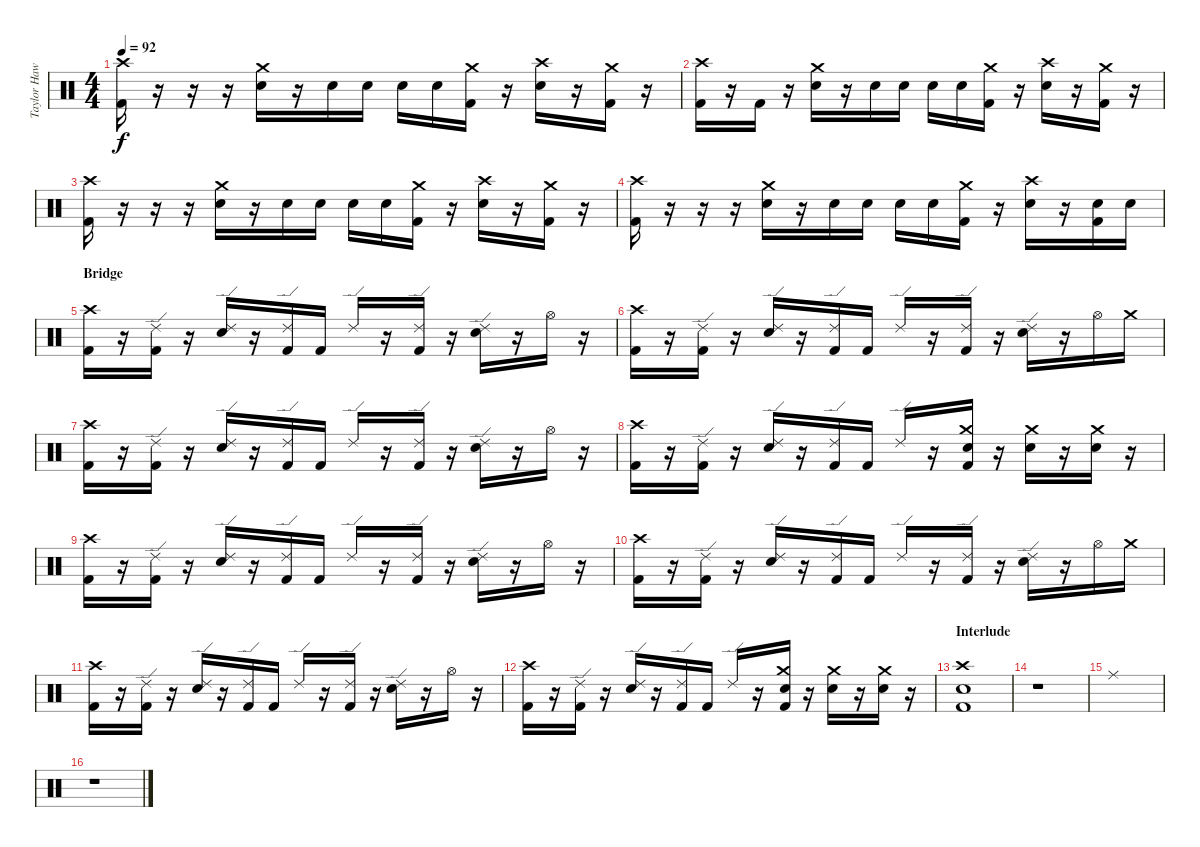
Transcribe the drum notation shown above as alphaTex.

\track ("Taylor Hawkins (Drums)" "Taylor Haw") {instrument percussion}
\staff {score}
\articulation defaults
\ts (4 4)
\tempo 92
\clef neutral
\ks c
("Crash high (hit)" "Kick (hit) 2").16{dy f} r.16 r.16 r.16 ("Crash medium (hit)" "Electric Snare (hit)").16 r.16 "Electric Snare (hit)".16 "Electric Snare (hit)".16 "Electric Snare (hit)".16 "Electric Snare (hit)".16 ("Crash medium (hit)" "Kick (hit) 2").16 r.16 ("Crash high (hit)" "Electric Snare (hit)").16 r.16 ("Crash medium (hit)" "Kick (hit) 2").16 r.16 |
("Crash high (hit)" "Kick (hit) 2").16 r.16 "Kick (hit) 2".16 r.16 ("Crash medium (hit)" "Electric Snare (hit)").16 r.16 "Electric Snare (hit)".16 "Electric Snare (hit)".16 "Electric Snare (hit)".16 "Electric Snare (hit)".16 ("Crash medium (hit)" "Kick (hit) 2").16 r.16 ("Crash high (hit)" "Electric Snare (hit)").16 r.16 ("Crash medium (hit)" "Kick (hit) 2").16 r.16 |
("Crash high (hit)" "Kick (hit) 2").16 r.16 r.16 r.16 ("Crash medium (hit)" "Electric Snare (hit)").16 r.16 "Electric Snare (hit)".16 "Electric Snare (hit)".16 "Electric Snare (hit)".16 "Electric Snare (hit)".16 ("Crash medium (hit)" "Kick (hit) 2").16 r.16 ("Crash high (hit)" "Electric Snare (hit)").16 r.16 ("Crash medium (hit)" "Kick (hit) 2").16 r.16 |
("Crash high (hit)" "Kick (hit) 2").16 r.16 r.16 r.16 ("Crash medium (hit)" "Electric Snare (hit)").16 r.16 "Electric Snare (hit)".16 "Electric Snare (hit)".16 "Electric Snare (hit)".16 "Electric Snare (hit)".16 ("Crash medium (hit)" "Kick (hit) 2").16 r.16 ("Crash high (hit)" "Electric Snare (hit)").16 r.16 ("Electric Snare (hit)" "Kick (hit) 2").16 "Electric Snare (hit)".16 |
\section ("" "Bridge")
("Crash high (hit)" "Kick (hit) 2").16 r.16 ("Ride (edge) 2" "Kick (hit) 2").16 r.16 ("Ride (edge) 2" "Electric Snare (hit)").16 r.16 ("Ride (edge) 2" "Kick (hit) 2").16 "Kick (hit) 2".16 "Ride (edge) 2".16 r.16 ("Ride (edge) 2" "Kick (hit) 2").16 r.16 ("Ride (edge) 2" "Electric Snare (hit)").16 r.16 "Hi-Hat (open)".16 r.16 |
("Crash high (hit)" "Kick (hit) 2").16 r.16 ("Ride (edge) 2" "Kick (hit) 2").16 r.16 ("Ride (edge) 2" "Electric Snare (hit)").16 r.16 ("Ride (edge) 2" "Kick (hit) 2").16 "Kick (hit) 2".16 "Ride (edge) 2".16 r.16 ("Ride (edge) 2" "Kick (hit) 2").16 r.16 ("Ride (edge) 2" "Electric Snare (hit)").16 r.16 "Hi-Hat (open)".16 "Crash medium (hit)".16 |
("Crash high (hit)" "Kick (hit) 2").16 r.16 ("Ride (edge) 2" "Kick (hit) 2").16 r.16 ("Ride (edge) 2" "Electric Snare (hit)").16 r.16 ("Ride (edge) 2" "Kick (hit) 2").16 "Kick (hit) 2".16 "Ride (edge) 2".16 r.16 ("Ride (edge) 2" "Kick (hit) 2").16 r.16 ("Ride (edge) 2" "Electric Snare (hit)").16 r.16 "Hi-Hat (open)".16 r.16 |
("Crash high (hit)" "Kick (hit) 2").16 r.16 ("Ride (edge) 2" "Kick (hit) 2").16 r.16 ("Ride (edge) 2" "Electric Snare (hit)").16 r.16 ("Ride (edge) 2" "Kick (hit) 2").16 "Kick (hit) 2".16 "Ride (edge) 2".16 r.16 ("Crash medium (hit)" "Electric Snare (hit)" "Kick (hit) 2").16 r.16 ("Crash medium (hit)" "Electric Snare (hit)").16 r.16 ("Crash medium (hit)" "Electric Snare (hit)").16 r.16 |
("Crash high (hit)" "Kick (hit) 2").16 r.16 ("Ride (edge) 2" "Kick (hit) 2").16 r.16 ("Ride (edge) 2" "Electric Snare (hit)").16 r.16 ("Ride (edge) 2" "Kick (hit) 2").16 "Kick (hit) 2".16 "Ride (edge) 2".16 r.16 ("Ride (edge) 2" "Kick (hit) 2").16 r.16 ("Ride (edge) 2" "Electric Snare (hit)").16 r.16 "Hi-Hat (open)".16 r.16 |
("Crash high (hit)" "Kick (hit) 2").16 r.16 ("Ride (edge) 2" "Kick (hit) 2").16 r.16 ("Ride (edge) 2" "Electric Snare (hit)").16 r.16 ("Ride (edge) 2" "Kick (hit) 2").16 "Kick (hit) 2".16 "Ride (edge) 2".16 r.16 ("Ride (edge) 2" "Kick (hit) 2").16 r.16 ("Ride (edge) 2" "Electric Snare (hit)").16 r.16 "Hi-Hat (open)".16 "Crash medium (hit)".16 |
("Crash high (hit)" "Kick (hit) 2").16 r.16 ("Ride (edge) 2" "Kick (hit) 2").16 r.16 ("Ride (edge) 2" "Electric Snare (hit)").16 r.16 ("Ride (edge) 2" "Kick (hit) 2").16 "Kick (hit) 2".16 "Ride (edge) 2".16 r.16 ("Ride (edge) 2" "Kick (hit) 2").16 r.16 ("Ride (edge) 2" "Electric Snare (hit)").16 r.16 "Hi-Hat (open)".16 r.16 |
("Crash high (hit)" "Kick (hit) 2").16 r.16 ("Ride (edge) 2" "Kick (hit) 2").16 r.16 ("Ride (edge) 2" "Electric Snare (hit)").16 r.16 ("Ride (edge) 2" "Kick (hit) 2").16 "Kick (hit) 2".16 "Ride (edge) 2".16 r.16 ("Crash medium (hit)" "Electric Snare (hit)" "Kick (hit) 2").16 r.16 ("Crash medium (hit)" "Electric Snare (hit)").16 r.16 ("Crash medium (hit)" "Electric Snare (hit)").16 r.16 |
\section ("" "Interlude")
("Crash high (hit)" "Electric Snare (hit)" "Kick (hit) 2").1 |
r.1 |
"Ride (middle)".1 |
r.1
